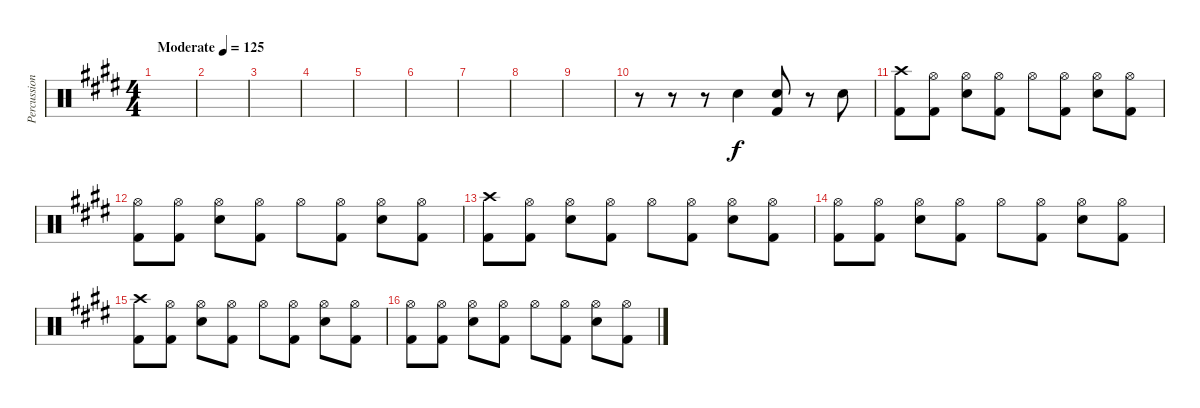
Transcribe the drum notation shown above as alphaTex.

\track ("Percussion" "Percussion") {instrument percussion}
\staff {score}
\articulation defaults
\ts (4 4)
\tempo (125 "Moderate")
\clef neutral
\ks e
|
|
|
|
|
|
|
|
|
r.8 r.8 r.8 "Electric Snare (hit)".4 ("Electric Snare (hit)" "Kick (hit) 2").8 r.8 "Electric Snare (hit)".8 |
("Crash high (hit)" "Kick (hit) 2").8 ("Hi-Hat (open)" "Kick (hit) 2").8 ("Hi-Hat (open)" "Electric Snare (hit)").8 ("Hi-Hat (open)" "Kick (hit) 2").8 "Hi-Hat (open)".8 ("Hi-Hat (open)" "Kick (hit) 2").8 ("Hi-Hat (open)" "Electric Snare (hit)").8 ("Hi-Hat (open)" "Kick (hit) 2").8 |
("Hi-Hat (open)" "Kick (hit) 2").8 ("Hi-Hat (open)" "Kick (hit) 2").8 ("Hi-Hat (open)" "Electric Snare (hit)").8 ("Hi-Hat (open)" "Kick (hit) 2").8 "Hi-Hat (open)".8 ("Hi-Hat (open)" "Kick (hit) 2").8 ("Hi-Hat (open)" "Electric Snare (hit)").8 ("Hi-Hat (open)" "Kick (hit) 2").8 |
("Crash high (hit)" "Kick (hit) 2").8 ("Hi-Hat (open)" "Kick (hit) 2").8 ("Hi-Hat (open)" "Electric Snare (hit)").8 ("Hi-Hat (open)" "Kick (hit) 2").8 "Hi-Hat (open)".8 ("Hi-Hat (open)" "Kick (hit) 2").8 ("Hi-Hat (open)" "Electric Snare (hit)").8 ("Hi-Hat (open)" "Kick (hit) 2").8 |
("Hi-Hat (open)" "Kick (hit) 2").8 ("Hi-Hat (open)" "Kick (hit) 2").8 ("Hi-Hat (open)" "Electric Snare (hit)").8 ("Hi-Hat (open)" "Kick (hit) 2").8 "Hi-Hat (open)".8 ("Hi-Hat (open)" "Kick (hit) 2").8 ("Hi-Hat (open)" "Electric Snare (hit)").8 ("Hi-Hat (open)" "Kick (hit) 2").8 |
("Crash high (hit)" "Kick (hit) 2").8 ("Hi-Hat (open)" "Kick (hit) 2").8 ("Hi-Hat (open)" "Electric Snare (hit)").8 ("Hi-Hat (open)" "Kick (hit) 2").8 "Hi-Hat (open)".8 ("Hi-Hat (open)" "Kick (hit) 2").8 ("Hi-Hat (open)" "Electric Snare (hit)").8 ("Hi-Hat (open)" "Kick (hit) 2").8 |
("Hi-Hat (open)" "Kick (hit) 2").8 ("Hi-Hat (open)" "Kick (hit) 2").8 ("Hi-Hat (open)" "Electric Snare (hit)").8 ("Hi-Hat (open)" "Kick (hit) 2").8 "Hi-Hat (open)".8 ("Hi-Hat (open)" "Kick (hit) 2").8 ("Hi-Hat (open)" "Electric Snare (hit)").8 ("Hi-Hat (open)" "Kick (hit) 2").8
